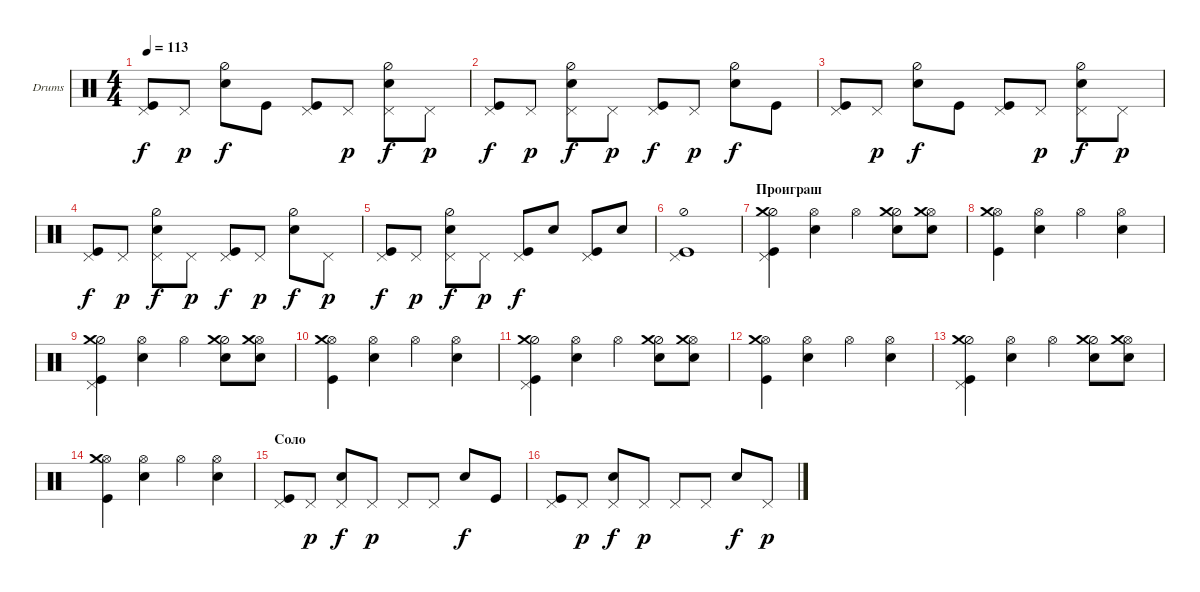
\defaultSystemsLayout 4
\bracketExtendMode groupsimilarinstruments
\firstSystemTrackNameOrientation horizontal
\otherSystemsTrackNameOrientation horizontal
\track ("Е. Кулаков" "Drums") {instrument percussion}
\staff {score}
\articulation defaults
\ts (4 4)
\tempo 113
\clef neutral
\ks c
("Pedal Hi-Hat (hit)" "Kick (hit)").8{dy f} "Pedal Hi-Hat (hit)".8{dy p} ("Snare (hit) 2" "Hi-Hat (half)").8{dy f} "Kick (hit)".8 ("Pedal Hi-Hat (hit)" "Kick (hit)").8 "Pedal Hi-Hat (hit)".8{dy p} ("Pedal Hi-Hat (hit)" "Snare (hit) 2" "Hi-Hat (half)").8{dy f} "Pedal Hi-Hat (hit)".8{dy p} |
("Kick (hit)" "Pedal Hi-Hat (hit)").8{dy f} "Pedal Hi-Hat (hit)".8{dy p} ("Snare (hit) 2" "Pedal Hi-Hat (hit)" "Hi-Hat (half)").8{dy f} "Pedal Hi-Hat (hit)".8{dy p} ("Pedal Hi-Hat (hit)" "Kick (hit)").8{dy f} "Pedal Hi-Hat (hit)".8{dy p} ("Snare (hit) 2" "Hi-Hat (half)").8{dy f} "Kick (hit)".8 |
("Pedal Hi-Hat (hit)" "Kick (hit)").8 "Pedal Hi-Hat (hit)".8{dy p} ("Snare (hit) 2" "Hi-Hat (half)").8{dy f} "Kick (hit)".8 ("Pedal Hi-Hat (hit)" "Kick (hit)").8 "Pedal Hi-Hat (hit)".8{dy p} ("Pedal Hi-Hat (hit)" "Snare (hit) 2" "Hi-Hat (half)").8{dy f} "Pedal Hi-Hat (hit)".8{dy p} |
("Kick (hit)" "Pedal Hi-Hat (hit)").8{dy f} "Pedal Hi-Hat (hit)".8{dy p} ("Snare (hit) 2" "Pedal Hi-Hat (hit)" "Hi-Hat (half)").8{dy f} "Pedal Hi-Hat (hit)".8{dy p} ("Pedal Hi-Hat (hit)" "Kick (hit)").8{dy f} "Pedal Hi-Hat (hit)".8{dy p} ("Snare (hit) 2" "Hi-Hat (half)").8{dy f} "Pedal Hi-Hat (hit)".8{dy p} |
("Kick (hit)" "Pedal Hi-Hat (hit)").8{dy f} "Pedal Hi-Hat (hit)".8{dy p} ("Snare (hit) 2" "Pedal Hi-Hat (hit)" "Hi-Hat (half)").8{dy f} "Pedal Hi-Hat (hit)".8{dy p} ("Pedal Hi-Hat (hit)" "Kick (hit)").8{dy f} "Snare (hit) 2".8 ("Pedal Hi-Hat (hit)" "Kick (hit)").8 "Snare (hit) 2".8 |
("Pedal Hi-Hat (hit)" "Kick (hit)" "Hi-Hat (half)").1 |
\section ("" "Проиграш")
("Pedal Hi-Hat (hit)" "Kick (hit)" "Hi-Hat (half)" "Crash medium (hit)").4 ("Snare (hit) 2" "Hi-Hat (open)").4 "Hi-Hat (open)".4 ("Snare (hit) 2" "Hi-Hat (half)" "Crash medium (hit)").8 ("Hi-Hat (open)" "Snare (hit) 2" "Crash medium (hit)").8 |
("Hi-Hat (open)" "Kick (hit)" "Crash medium (hit)").4 ("Hi-Hat (open)" "Snare (hit) 2").4 "Hi-Hat (open)".4 ("Snare (hit) 2" "Hi-Hat (open)").4 |
("Pedal Hi-Hat (hit)" "Kick (hit)" "Hi-Hat (half)" "Crash medium (hit)").4 ("Snare (hit) 2" "Hi-Hat (open)").4 "Hi-Hat (open)".4 ("Snare (hit) 2" "Hi-Hat (half)" "Crash medium (hit)").8 ("Hi-Hat (open)" "Snare (hit) 2" "Crash medium (hit)").8 |
("Hi-Hat (open)" "Kick (hit)" "Crash medium (hit)").4 ("Hi-Hat (open)" "Snare (hit) 2").4 "Hi-Hat (open)".4 ("Snare (hit) 2" "Hi-Hat (open)").4 |
("Pedal Hi-Hat (hit)" "Kick (hit)" "Hi-Hat (half)" "Crash medium (hit)").4 ("Snare (hit) 2" "Hi-Hat (open)").4 "Hi-Hat (open)".4 ("Snare (hit) 2" "Hi-Hat (half)" "Crash medium (hit)").8 ("Hi-Hat (open)" "Snare (hit) 2" "Crash medium (hit)").8 |
("Hi-Hat (open)" "Kick (hit)" "Crash medium (hit)").4 ("Hi-Hat (open)" "Snare (hit) 2").4 "Hi-Hat (open)".4 ("Snare (hit) 2" "Hi-Hat (open)").4 |
("Pedal Hi-Hat (hit)" "Kick (hit)" "Hi-Hat (half)" "Crash medium (hit)").4 ("Snare (hit) 2" "Hi-Hat (open)").4 "Hi-Hat (open)".4 ("Snare (hit) 2" "Hi-Hat (half)" "Crash medium (hit)").8 ("Hi-Hat (open)" "Snare (hit) 2" "Crash medium (hit)").8 |
("Hi-Hat (open)" "Kick (hit)" "Crash medium (hit)").4 ("Hi-Hat (open)" "Snare (hit) 2").4 "Hi-Hat (open)".4 ("Snare (hit) 2" "Hi-Hat (open)").4 |
\section ("" "Соло")
("Kick (hit)" "Pedal Hi-Hat (hit)").8 "Pedal Hi-Hat (hit)".8{dy p} ("Snare (hit) 2" "Pedal Hi-Hat (hit)").8{dy f} "Pedal Hi-Hat (hit)".8{dy p} "Pedal Hi-Hat (hit)".8 "Pedal Hi-Hat (hit)".8 "Snare (hit) 2".8{dy f} "Kick (hit)".8 |
("Kick (hit)" "Pedal Hi-Hat (hit)").8 "Pedal Hi-Hat (hit)".8{dy p} ("Snare (hit) 2" "Pedal Hi-Hat (hit)").8{dy f} "Pedal Hi-Hat (hit)".8{dy p} "Pedal Hi-Hat (hit)".8 "Pedal Hi-Hat (hit)".8 "Snare (hit) 2".8{dy f} "Pedal Hi-Hat (hit)".8{dy p}
